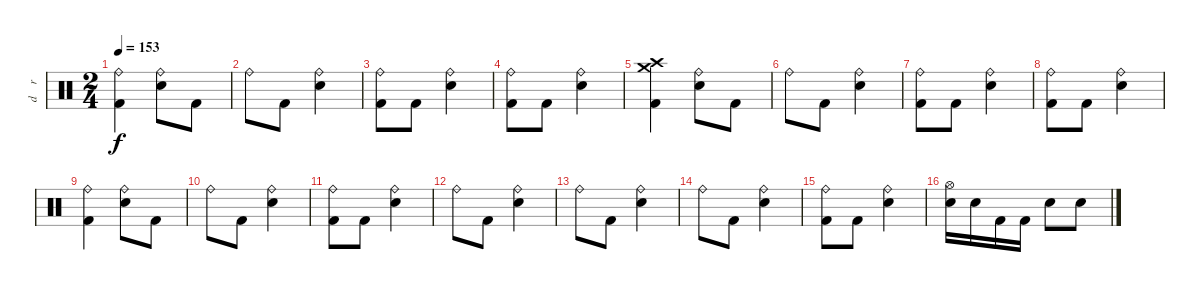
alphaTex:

\track ("d    r     u    m    s" "d    r    ") {instrument percussion}
\staff {score}
\articulation defaults
\ts (2 4)
\tempo 153
\clef neutral
\ks c
("Ride (bell)" "Kick (hit) 2").4{dy f} ("Ride (bell)" "Electric Snare (hit)").8 "Kick (hit) 2".8 |
"Ride (bell)".8 "Kick (hit) 2".8 ("Ride (bell)" "Electric Snare (hit)").4 |
("Ride (bell)" "Kick (hit) 2").8 "Kick (hit) 2".8 ("Ride (bell)" "Electric Snare (hit)").4 |
("Ride (bell)" "Kick (hit) 2").8 "Kick (hit) 2".8 ("Ride (bell)" "Electric Snare (hit)").4 |
("Crash high (hit)" "Crash medium (hit)" "Kick (hit) 2").4 ("Ride (bell)" "Electric Snare (hit)").8 "Kick (hit) 2".8 |
"Ride (bell)".8 "Kick (hit) 2".8 ("Ride (bell)" "Electric Snare (hit)").4 |
("Ride (bell)" "Kick (hit) 2").8 "Kick (hit) 2".8 ("Ride (bell)" "Electric Snare (hit)").4 |
("Ride (bell)" "Kick (hit) 2").8 "Kick (hit) 2".8 ("Ride (bell)" "Electric Snare (hit)").4 |
("Ride (bell)" "Kick (hit) 2").4 ("Ride (bell)" "Electric Snare (hit)").8 "Kick (hit) 2".8 |
"Ride (bell)".8 "Kick (hit) 2".8 ("Ride (bell)" "Electric Snare (hit)").4 |
("Ride (bell)" "Kick (hit) 2").8 "Kick (hit) 2".8 ("Ride (bell)" "Electric Snare (hit)").4 |
"Ride (bell)".8 "Kick (hit) 2".8 ("Ride (bell)" "Electric Snare (hit)").4 |
"Ride (bell)".8 "Kick (hit) 2".8 ("Ride (bell)" "Electric Snare (hit)").4 |
"Ride (bell)".8 "Kick (hit) 2".8 ("Ride (bell)" "Electric Snare (hit)").4 |
("Ride (bell)" "Kick (hit) 2").8 "Kick (hit) 2".8 ("Ride (bell)" "Electric Snare (hit)").4 |
("Hi-Hat (open)" "Electric Snare (hit)").16 "Electric Snare (hit)".16 "Kick (hit) 2".16 "Kick (hit) 2".16 "Electric Snare (hit)".8 "Electric Snare (hit)".8
